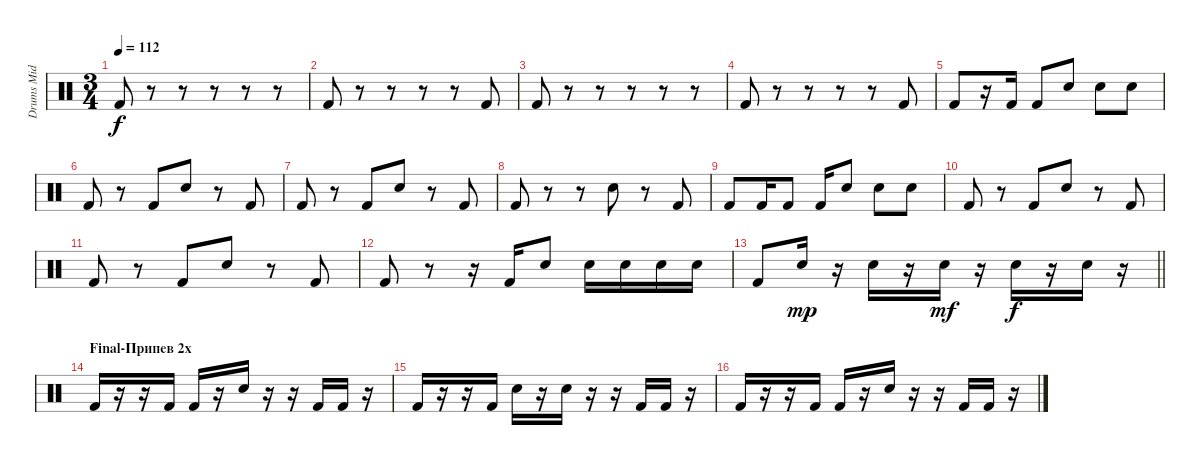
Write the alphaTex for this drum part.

\track ("Drums Mid" "Drums Mid") {instrument percussion}
\staff {score}
\articulation defaults
\ts (3 4)
\tempo 112
\clef neutral
\ks c "Kick (hit) 2".8{dy f}
r.8 r.8 r.8 r.8 r.8 |
"Kick (hit) 2".8 r.8 r.8 r.8 r.8 "Kick (hit) 2".8 |
"Kick (hit) 2".8 r.8 r.8 r.8 r.8 r.8 |
"Kick (hit) 2".8 r.8 r.8 r.8 r.8 "Kick (hit) 2".8 |
"Kick (hit) 2".8 r.16 "Kick (hit) 2".16 "Kick (hit) 2".8 "Snare (hit) 2".8 "Snare (hit) 2".8 "Snare (hit) 2".8 |
"Kick (hit) 2".8 r.8 "Kick (hit) 2".8 "Snare (hit) 2".8 r.8 "Kick (hit) 2".8 |
"Kick (hit) 2".8 r.8 "Kick (hit) 2".8 "Snare (hit) 2".8 r.8 "Kick (hit) 2".8 |
"Kick (hit) 2".8 r.8 r.8 "Snare (hit) 2".8 r.8 "Kick (hit) 2".8 |
"Kick (hit) 2".8 "Kick (hit) 2".16 "Kick (hit) 2".8 "Kick (hit) 2".16 "Snare (hit) 2".8 "Snare (hit) 2".8 "Snare (hit) 2".8 |
"Kick (hit) 2".8 r.8 "Kick (hit) 2".8 "Snare (hit) 2".8 r.8 "Kick (hit) 2".8 |
"Kick (hit) 2".8 r.8 "Kick (hit) 2".8 "Snare (hit) 2".8 r.8 "Kick (hit) 2".8 |
"Kick (hit) 2".8 r.8 r.16 "Kick (hit) 2".16 "Snare (hit) 2".8 "Snare (hit) 2".16 "Snare (hit) 2".16 "Snare (hit) 2".16 "Snare (hit) 2".16 |
\barLineRight lightlight "Kick (hit) 2".8 "Snare (hit) 2".16{dy mp}
r.16 "Snare (hit) 2".16 r.16 "Snare (hit) 2".16{dy mf} r.16 "Snare (hit) 2".16{dy f} r.16 "Snare (hit) 2".16 r.16 |
\section ("" "Final-Припев 2х")
"Kick (hit) 2".16 r.16 r.16 "Kick (hit) 2".16 "Kick (hit) 2".16 r.16 "Snare (hit) 2".16 r.16 r.16 "Kick (hit) 2".16 "Kick (hit) 2".16 r.16 |
"Kick (hit) 2".16 r.16 r.16 "Kick (hit) 2".16 "Snare (hit) 2".16 r.16 "Snare (hit) 2".16 r.16 r.16 "Kick (hit) 2".16 "Kick (hit) 2".16 r.16 |
"Kick (hit) 2".16 r.16 r.16 "Kick (hit) 2".16 "Kick (hit) 2".16 r.16 "Snare (hit) 2".16 r.16 r.16 "Kick (hit) 2".16 "Kick (hit) 2".16 r.16
